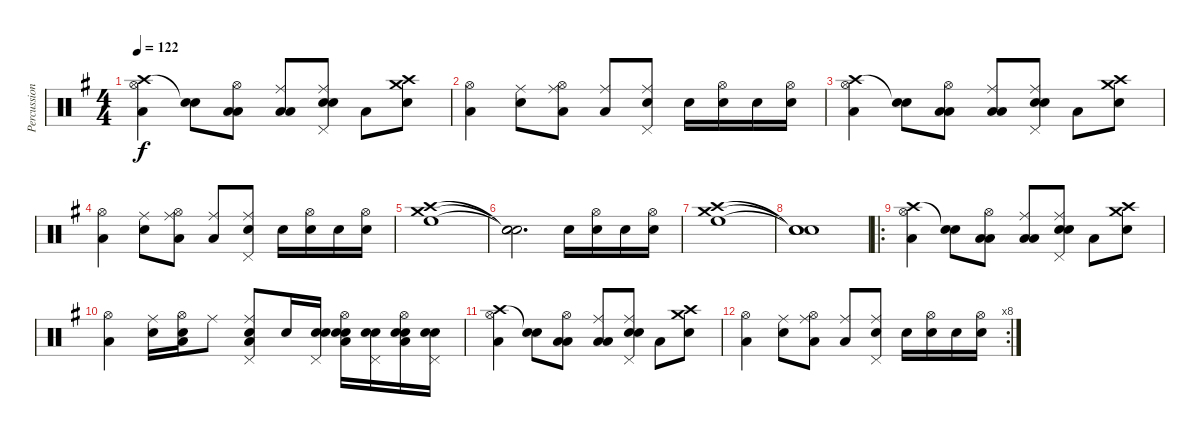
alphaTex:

\track ("Percussion" "Percussion") {instrument percussion}
\staff {score}
\articulation defaults
\ts (4 4)
\tempo 122
\clef neutral
\ks g
("Crash high (hit)" "Hi-Hat (open)" "Low Tom (hit)").4{dy f} ("Snare (hit)"{t} "Electric Snare (hit)").8 ("Hi-Hat (open)" "Low Floor Tom (hit)" "Low Tom (hit)").8 ("Ride (middle)" "Low Floor Tom (hit)" "Low Tom (hit)").8 ("Pedal Hi-Hat (hit)" "Ride (middle)" "Electric Snare (hit)" "Snare (hit) 2").8 "Low Tom (hit)".8 ("Crash high (hit)" "Crash medium (hit)" "Electric Snare (hit)").8 |
("Hi-Hat (open)" "Low Tom (hit)").4 ("Ride (middle)" "Electric Snare (hit)").8 ("Hi-Hat (open)" "Ride (middle)" "Low Tom (hit)").8 ("Ride (middle)" "Low Tom (hit)").8 ("Pedal Hi-Hat (hit)" "Ride (middle)" "Electric Snare (hit)").8 "Electric Snare (hit)".16 ("Hi-Hat (open)" "Snare (hit) 2").16 "Snare (hit) 2".16 ("Hi-Hat (open)" "Electric Snare (hit)").16 |
("Crash high (hit)" "Hi-Hat (open)" "Low Tom (hit)").4 ("Snare (hit)"{t} "Electric Snare (hit)").8 ("Hi-Hat (open)" "Low Floor Tom (hit)" "Low Tom (hit)").8 ("Ride (middle)" "Low Floor Tom (hit)" "Low Tom (hit)").8 ("Pedal Hi-Hat (hit)" "Ride (middle)" "Electric Snare (hit)" "Snare (hit) 2").8 "Low Tom (hit)".8 ("Crash high (hit)" "Crash medium (hit)" "Electric Snare (hit)").8 |
("Hi-Hat (open)" "Low Tom (hit)").4 ("Ride (middle)" "Electric Snare (hit)").8 ("Hi-Hat (open)" "Ride (middle)" "Low Tom (hit)").8 ("Ride (middle)" "Low Tom (hit)").8 ("Pedal Hi-Hat (hit)" "Ride (middle)" "Electric Snare (hit)").8 "Electric Snare (hit)".16 ("Hi-Hat (open)" "Snare (hit) 2").16 "Snare (hit) 2".16 ("Hi-Hat (open)" "Electric Snare (hit)").16 |
("Crash high (hit)" "Crash medium (hit)" "High Floor Tom (hit)").1 |
("Snare (hit)"{t} "Snare (hit)"{t} "Snare (hit)"{t}).2{d} "Electric Snare (hit)".16 ("Hi-Hat (open)" "Snare (hit) 2").16 "Snare (hit) 2".16 ("Hi-Hat (open)" "Electric Snare (hit)").16 |
("Crash high (hit)" "Crash medium (hit)" "High Floor Tom (hit)").1 |
("Snare (hit)"{t} "Snare (hit)"{t} "Snare (hit)"{t}).1 |
\ro
("Crash high (hit)" "Hi-Hat (open)" "Low Tom (hit)").4 ("Snare (hit)"{t} "Electric Snare (hit)").8 ("Hi-Hat (open)" "Low Floor Tom (hit)" "Low Tom (hit)").8 ("Ride (middle)" "Low Floor Tom (hit)" "Low Tom (hit)").8 ("Pedal Hi-Hat (hit)" "Ride (middle)" "Electric Snare (hit)" "Snare (hit) 2").8 "Low Tom (hit)".8 ("Crash high (hit)" "Crash medium (hit)" "Electric Snare (hit)").8 |
("Hi-Hat (open)" "Low Tom (hit)").4 ("Ride (middle)" "Electric Snare (hit)").16 ("Hi-Hat (open)" "Snare (hit) 2" "Low Tom (hit)").16 "Ride (middle)".8 ("Pedal Hi-Hat (hit)" "Ride (middle)" "Electric Snare (hit)" "Low Tom (hit)").8 "Snare (hit) 2".16 ("Pedal Hi-Hat (hit)" "Electric Snare (hit)" "Snare (hit) 2").16 ("Hi-Hat (open)" "Electric Snare (hit)" "Snare (hit) 2" "Low Tom (hit)").16 ("Pedal Hi-Hat (hit)" "Electric Snare (hit)" "Snare (hit) 2").16 ("Hi-Hat (open)" "Electric Snare (hit)" "Snare (hit) 2" "Low Tom (hit)").16 ("Pedal Hi-Hat (hit)" "Electric Snare (hit)" "Snare (hit) 2").16 |
("Crash high (hit)" "Hi-Hat (open)" "Low Tom (hit)").4 ("Snare (hit)"{t} "Electric Snare (hit)").8 ("Hi-Hat (open)" "Low Floor Tom (hit)" "Low Tom (hit)").8 ("Ride (middle)" "Low Floor Tom (hit)" "Low Tom (hit)").8 ("Pedal Hi-Hat (hit)" "Ride (middle)" "Electric Snare (hit)" "Snare (hit) 2").8 "Low Tom (hit)".8 ("Crash high (hit)" "Crash medium (hit)" "Electric Snare (hit)").8 |
\rc 8
("Hi-Hat (open)" "Low Tom (hit)").4 ("Ride (middle)" "Electric Snare (hit)").8 ("Hi-Hat (open)" "Ride (middle)" "Low Tom (hit)").8 ("Ride (middle)" "Low Tom (hit)").8 ("Pedal Hi-Hat (hit)" "Ride (middle)" "Electric Snare (hit)").8 "Electric Snare (hit)".16 ("Hi-Hat (open)" "Snare (hit) 2").16 "Snare (hit) 2".16 ("Hi-Hat (open)" "Electric Snare (hit)").16
